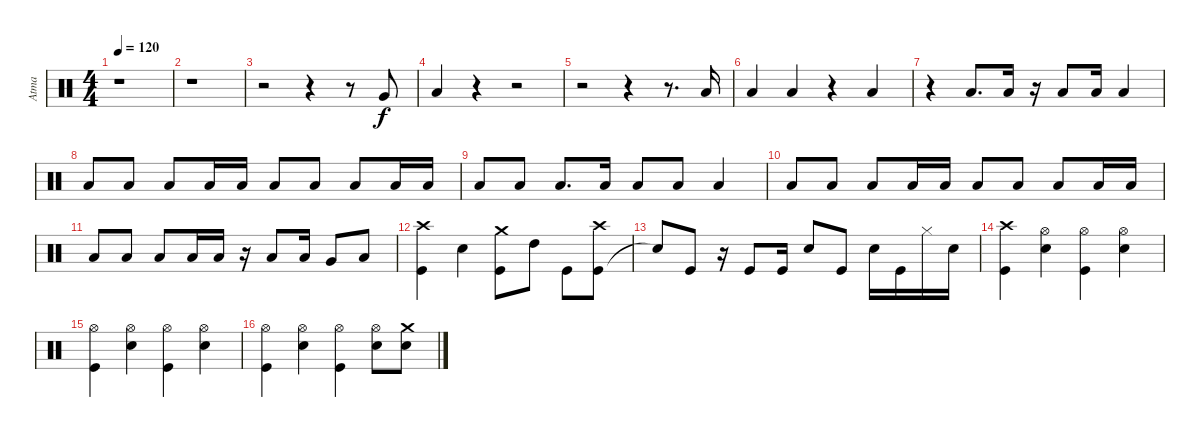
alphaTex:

\track ("Atma" "Atma") {instrument percussion}
\staff {score}
\articulation defaults
\ts (4 4)
\tempo 120
\clef neutral
\ks c
r.1{dy f} |
r.1 |
r.2 r.4 r.8 "Very Low Tom (hit)".8 |
"Low Floor Tom (hit)".4 r.4 r.2 |
r.2 r.4 r.8{d} "Low Floor Tom (hit)".16 |
"Low Floor Tom (hit)".4 "Low Floor Tom (hit)".4 r.4 "Low Floor Tom (hit)".4 |
r.4 "Low Floor Tom (hit)".8{d} "Low Floor Tom (hit)".16 r.16 "Low Floor Tom (hit)".8 "Low Floor Tom (hit)".16 "Low Floor Tom (hit)".4 |
"Low Floor Tom (hit)".8 "Low Floor Tom (hit)".8 "Low Floor Tom (hit)".8 "Low Floor Tom (hit)".16 "Low Floor Tom (hit)".16 "Low Floor Tom (hit)".8 "Low Floor Tom (hit)".8 "Low Floor Tom (hit)".8 "Low Floor Tom (hit)".16 "Low Floor Tom (hit)".16 |
"Low Floor Tom (hit)".8 "Low Floor Tom (hit)".8 "Low Floor Tom (hit)".8{d} "Low Floor Tom (hit)".16 "Low Floor Tom (hit)".8 "Low Floor Tom (hit)".8 "Low Floor Tom (hit)".4 |
"Low Floor Tom (hit)".8 "Low Floor Tom (hit)".8 "Low Floor Tom (hit)".8 "Low Floor Tom (hit)".16 "Low Floor Tom (hit)".16 "Low Floor Tom (hit)".8 "Low Floor Tom (hit)".8 "Low Floor Tom (hit)".8 "Low Floor Tom (hit)".16 "Low Floor Tom (hit)".16 |
"Low Floor Tom (hit)".8 "Low Floor Tom (hit)".8 "Low Floor Tom (hit)".8 "Low Floor Tom (hit)".16 "Low Floor Tom (hit)".16 r.16 "Low Floor Tom (hit)".8 "Low Floor Tom (hit)".16 "Very Low Tom (hit)".8 "Low Floor Tom (hit)".8 |
("Kick (hit)" "Crash high (hit)").4 "Snare (hit) 2".4 ("Kick (hit)" "Crash medium (hit)").8 "High Tom (hit)".8 "Kick (hit)".8 ("Kick (hit)" "Crash high (hit)").8 |
"Snare (hit)"{t}.8 "Kick (hit)".8 r.16 "Kick (hit)".8 "Kick (hit)".16 "Snare (hit) 2".8 "Kick (hit)".8 "Snare (hit) 2".16 "Kick (hit)".16 "Hi-Hat (closed)".16 "Snare (hit) 2".16 |
("Kick (hit)" "Crash high (hit)").4 ("Snare (hit) 2" "Hi-Hat (open)").4 ("Kick (hit)" "Hi-Hat (open)").4 ("Snare (hit) 2" "Hi-Hat (open)").4 |
("Kick (hit)" "Hi-Hat (open)").4 ("Snare (hit) 2" "Hi-Hat (open)").4 ("Kick (hit)" "Hi-Hat (open)").4 ("Snare (hit) 2" "Hi-Hat (open)").4 |
("Kick (hit)" "Hi-Hat (open)").4 ("Snare (hit) 2" "Hi-Hat (open)").4 ("Kick (hit)" "Hi-Hat (open)").4 ("Snare (hit) 2" "Hi-Hat (open)").8 ("Snare (hit) 2" "Crash medium (hit)").8
